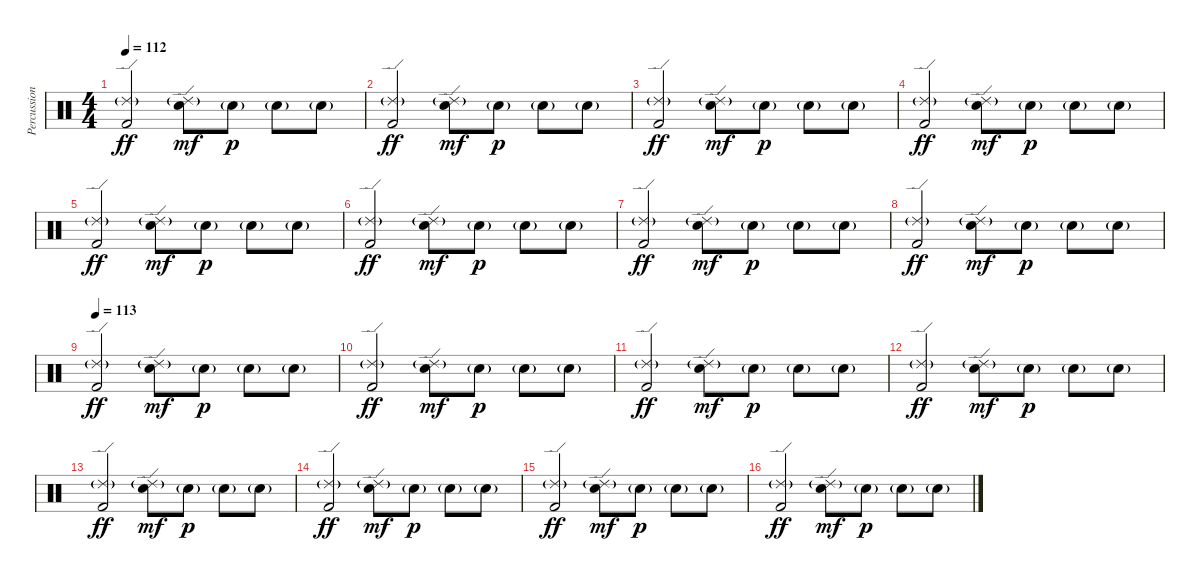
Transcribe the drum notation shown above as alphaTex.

\track ("Percussion" "Percussion") {instrument percussion}
\staff {score}
\articulation defaults
\ts (4 4)
\tempo 112
\clef neutral
\ks c
("Ride (edge) 2"{g} "Kick (hit) 2").2{dy ff} ("Ride (edge) 2"{g} "Electric Snare (hit)").8{dy mf} "Electric Snare (hit)"{g}.8{dy p} "Electric Snare (hit)"{g}.8 "Electric Snare (hit)"{g}.8 |
("Ride (edge) 2"{g} "Kick (hit) 2").2{dy ff} ("Ride (edge) 2"{g} "Electric Snare (hit)").8{dy mf} "Electric Snare (hit)"{g}.8{dy p} "Electric Snare (hit)"{g}.8 "Electric Snare (hit)"{g}.8 |
("Ride (edge) 2"{g} "Kick (hit) 2").2{dy ff} ("Ride (edge) 2"{g} "Electric Snare (hit)").8{dy mf} "Electric Snare (hit)"{g}.8{dy p} "Electric Snare (hit)"{g}.8 "Electric Snare (hit)"{g}.8 |
("Ride (edge) 2"{g} "Kick (hit) 2").2{dy ff} ("Ride (edge) 2"{g} "Electric Snare (hit)").8{dy mf} "Electric Snare (hit)"{g}.8{dy p} "Electric Snare (hit)"{g}.8 "Electric Snare (hit)"{g}.8 |
("Ride (edge) 2"{g} "Kick (hit) 2").2{dy ff} ("Ride (edge) 2"{g} "Electric Snare (hit)").8{dy mf} "Electric Snare (hit)"{g}.8{dy p} "Electric Snare (hit)"{g}.8 "Electric Snare (hit)"{g}.8 |
("Ride (edge) 2"{g} "Kick (hit) 2").2{dy ff} ("Ride (edge) 2"{g} "Electric Snare (hit)").8{dy mf} "Electric Snare (hit)"{g}.8{dy p} "Electric Snare (hit)"{g}.8 "Electric Snare (hit)"{g}.8 |
("Ride (edge) 2"{g} "Kick (hit) 2").2{dy ff} ("Ride (edge) 2"{g} "Electric Snare (hit)").8{dy mf} "Electric Snare (hit)"{g}.8{dy p} "Electric Snare (hit)"{g}.8 "Electric Snare (hit)"{g}.8 |
("Ride (edge) 2"{g} "Kick (hit) 2").2{dy ff} ("Ride (edge) 2"{g} "Electric Snare (hit)").8{dy mf} "Electric Snare (hit)"{g}.8{dy p} "Electric Snare (hit)"{g}.8 "Electric Snare (hit)"{g}.8 |
\tempo 113
("Ride (edge) 2"{g} "Kick (hit) 2").2{dy ff} ("Ride (edge) 2"{g} "Electric Snare (hit)").8{dy mf} "Electric Snare (hit)"{g}.8{dy p} "Electric Snare (hit)"{g}.8 "Electric Snare (hit)"{g}.8 |
("Ride (edge) 2"{g} "Kick (hit) 2").2{dy ff} ("Ride (edge) 2"{g} "Electric Snare (hit)").8{dy mf} "Electric Snare (hit)"{g}.8{dy p} "Electric Snare (hit)"{g}.8 "Electric Snare (hit)"{g}.8 |
("Ride (edge) 2"{g} "Kick (hit) 2").2{dy ff} ("Ride (edge) 2"{g} "Electric Snare (hit)").8{dy mf} "Electric Snare (hit)"{g}.8{dy p} "Electric Snare (hit)"{g}.8 "Electric Snare (hit)"{g}.8 |
("Ride (edge) 2"{g} "Kick (hit) 2").2{dy ff} ("Ride (edge) 2"{g} "Electric Snare (hit)").8{dy mf} "Electric Snare (hit)"{g}.8{dy p} "Electric Snare (hit)"{g}.8 "Electric Snare (hit)"{g}.8 |
("Ride (edge) 2"{g} "Kick (hit) 2").2{dy ff} ("Ride (edge) 2"{g} "Electric Snare (hit)").8{dy mf} "Electric Snare (hit)"{g}.8{dy p} "Electric Snare (hit)"{g}.8 "Electric Snare (hit)"{g}.8 |
("Ride (edge) 2"{g} "Kick (hit) 2").2{dy ff} ("Ride (edge) 2"{g} "Electric Snare (hit)").8{dy mf} "Electric Snare (hit)"{g}.8{dy p} "Electric Snare (hit)"{g}.8 "Electric Snare (hit)"{g}.8 |
("Ride (edge) 2"{g} "Kick (hit) 2").2{dy ff} ("Ride (edge) 2"{g} "Electric Snare (hit)").8{dy mf} "Electric Snare (hit)"{g}.8{dy p} "Electric Snare (hit)"{g}.8 "Electric Snare (hit)"{g}.8 |
("Ride (edge) 2"{g} "Kick (hit) 2").2{dy ff} ("Ride (edge) 2"{g} "Electric Snare (hit)").8{dy mf} "Electric Snare (hit)"{g}.8{dy p} "Electric Snare (hit)"{g}.8 "Electric Snare (hit)"{g}.8
